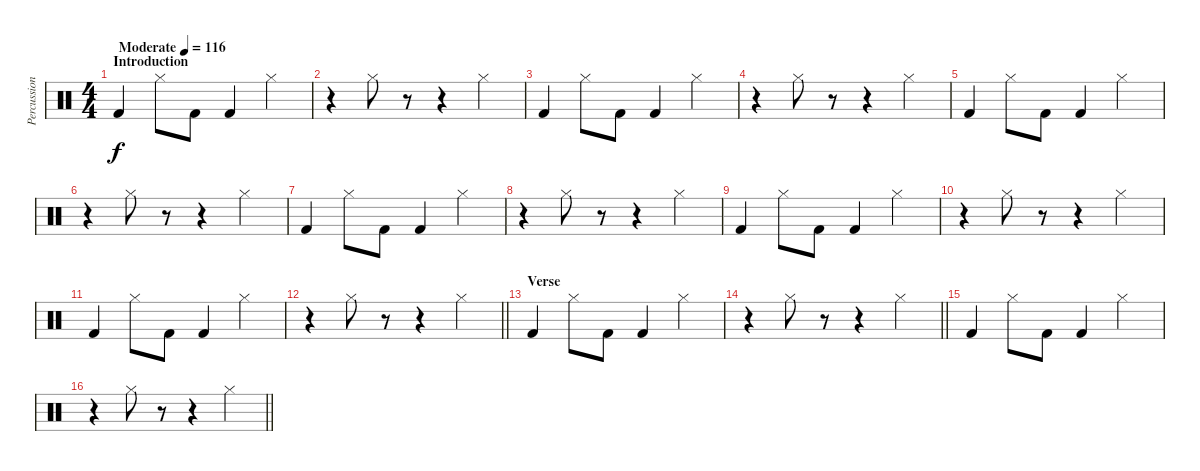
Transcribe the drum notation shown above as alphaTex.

\track ("Percussion" "Percussion") {instrument percussion}
\staff {score}
\articulation defaults
\ts (4 4)
\section ("" "Introduction")
\tempo (116 "Moderate")
\clef neutral
\ks c "Kick (hit) 2".4{dy f} "Hi-Hat (closed)".8 "Kick (hit) 2".8 "Kick (hit) 2".4 "Hi-Hat (closed)".4
|
r.4 "Hi-Hat (closed)".8 r.8 r.4 "Hi-Hat (closed)".4 |
"Kick (hit) 2".4 "Hi-Hat (closed)".8 "Kick (hit) 2".8 "Kick (hit) 2".4 "Hi-Hat (closed)".4 |
r.4 "Hi-Hat (closed)".8 r.8 r.4 "Hi-Hat (closed)".4 |
"Kick (hit) 2".4 "Hi-Hat (closed)".8 "Kick (hit) 2".8 "Kick (hit) 2".4 "Hi-Hat (closed)".4 |
r.4 "Hi-Hat (closed)".8 r.8 r.4 "Hi-Hat (closed)".4 |
"Kick (hit) 2".4 "Hi-Hat (closed)".8 "Kick (hit) 2".8 "Kick (hit) 2".4 "Hi-Hat (closed)".4 |
r.4 "Hi-Hat (closed)".8 r.8 r.4 "Hi-Hat (closed)".4 |
"Kick (hit) 2".4 "Hi-Hat (closed)".8 "Kick (hit) 2".8 "Kick (hit) 2".4 "Hi-Hat (closed)".4 |
r.4 "Hi-Hat (closed)".8 r.8 r.4 "Hi-Hat (closed)".4 |
"Kick (hit) 2".4 "Hi-Hat (closed)".8 "Kick (hit) 2".8 "Kick (hit) 2".4 "Hi-Hat (closed)".4 |
\barLineRight lightlight
r.4 "Hi-Hat (closed)".8 r.8 r.4 "Hi-Hat (closed)".4 |
\section ("" "Verse")
"Kick (hit) 2".4 "Hi-Hat (closed)".8 "Kick (hit) 2".8 "Kick (hit) 2".4 "Hi-Hat (closed)".4 |
\barLineRight lightlight
r.4 "Hi-Hat (closed)".8 r.8 r.4 "Hi-Hat (closed)".4 |
"Kick (hit) 2".4 "Hi-Hat (closed)".8 "Kick (hit) 2".8 "Kick (hit) 2".4 "Hi-Hat (closed)".4 |
\barLineRight lightlight
r.4 "Hi-Hat (closed)".8 r.8 r.4 "Hi-Hat (closed)".4
